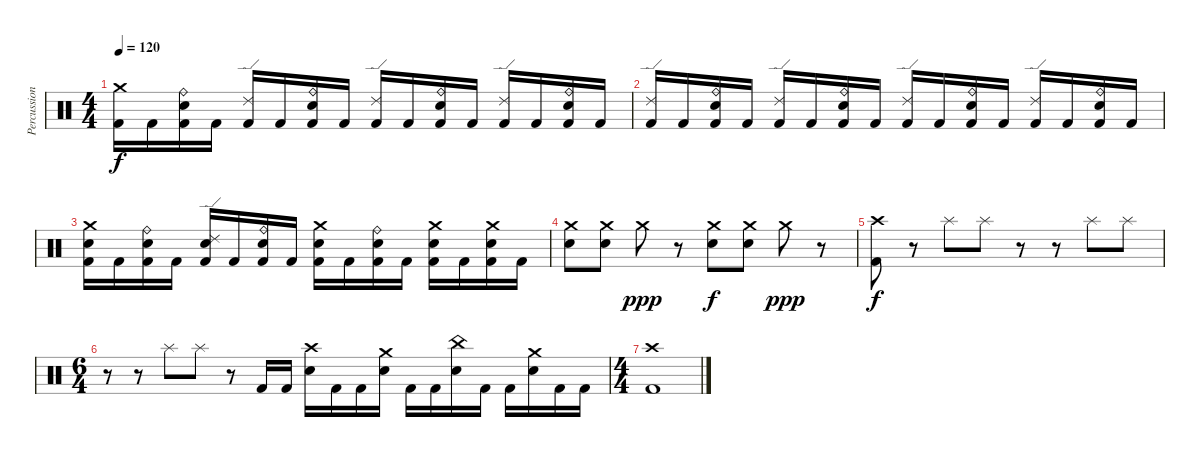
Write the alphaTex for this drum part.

\track ("Percussion" "Percussion") {instrument percussion}
\staff {score}
\articulation defaults
\ts (4 4)
\tempo 120
\clef neutral
\ks c
("Crash medium (hit)" "Kick (hit) 2").16{dy f} "Kick (hit) 2".16 ("Ride (bell)" "Snare (hit) 2" "Kick (hit) 2").16 "Kick (hit) 2".16 ("Ride (edge) 2" "Kick (hit) 2").16 "Kick (hit) 2".16 ("Ride (bell)" "Snare (hit) 2" "Kick (hit) 2").16 "Kick (hit) 2".16 ("Ride (edge) 2" "Kick (hit) 2").16 "Kick (hit) 2".16 ("Ride (bell)" "Snare (hit) 2" "Kick (hit) 2").16 "Kick (hit) 2".16 ("Ride (edge) 2" "Kick (hit) 2").16 "Kick (hit) 2".16 ("Ride (bell)" "Snare (hit) 2" "Kick (hit) 2").16 "Kick (hit) 2".16 |
("Ride (edge) 2" "Kick (hit) 2").16 "Kick (hit) 2".16 ("Ride (bell)" "Snare (hit) 2" "Kick (hit) 2").16 "Kick (hit) 2".16 ("Ride (edge) 2" "Kick (hit) 2").16 "Kick (hit) 2".16 ("Ride (bell)" "Snare (hit) 2" "Kick (hit) 2").16 "Kick (hit) 2".16 ("Ride (edge) 2" "Kick (hit) 2").16 "Kick (hit) 2".16 ("Ride (bell)" "Snare (hit) 2" "Kick (hit) 2").16 "Kick (hit) 2".16 ("Ride (edge) 2" "Kick (hit) 2").16 "Kick (hit) 2".16 ("Ride (bell)" "Snare (hit) 2" "Kick (hit) 2").16 "Kick (hit) 2".16 |
("Crash medium (hit)" "Snare (hit) 2" "Kick (hit) 2").16 "Kick (hit) 2".16 ("Ride (bell)" "Snare (hit) 2" "Kick (hit) 2").16 "Kick (hit) 2".16 ("Ride (edge) 2" "Snare (hit) 2" "Kick (hit) 2").16 "Kick (hit) 2".16 ("Ride (bell)" "Snare (hit) 2" "Kick (hit) 2").16 "Kick (hit) 2".16 ("Crash medium (hit)" "Snare (hit) 2" "Kick (hit) 2").16 "Kick (hit) 2".16 ("Ride (bell)" "Snare (hit) 2" "Kick (hit) 2").16 "Kick (hit) 2".16 ("Crash medium (hit)" "Snare (hit) 2" "Kick (hit) 2").16 "Kick (hit) 2".16 ("Crash medium (hit)" "Snare (hit) 2" "Kick (hit) 2").16 "Kick (hit) 2".16 |
("Crash medium (hit)" "Snare (hit) 2").8 ("Crash medium (hit)" "Snare (hit) 2").8 "Crash medium (hit)".8{dy ppp} r.8 ("Crash medium (hit)" "Snare (hit) 2").8{dy f} ("Crash medium (hit)" "Snare (hit) 2").8 "Crash medium (hit)".8{dy ppp} r.8 |
("Crash high (hit)" "Kick (hit) 2").8{dy f} r.8 "Splash (hit)".8 "Splash (hit)".8 r.8 r.8 "Splash (hit)".8 "Splash (hit)".8 |
\ts (6 4)
r.8 r.8 "Splash (hit)".8 "Splash (hit)".8 r.8 "Kick (hit) 2".16 "Kick (hit) 2".16 ("Crash high (hit)" "Snare (hit) 2").16 "Kick (hit) 2".16 "Kick (hit) 2".16 ("Crash medium (hit)" "Snare (hit) 2").16 "Kick (hit) 2".16 "Kick (hit) 2".16 ("China (hit)" "Snare (hit) 2").16 "Kick (hit) 2".16 "Kick (hit) 2".16 ("Crash medium (hit)" "Snare (hit) 2").16 "Kick (hit) 2".16 "Kick (hit) 2".16 |
\ts (4 4)
("Crash high (hit)" "Kick (hit) 2").1
